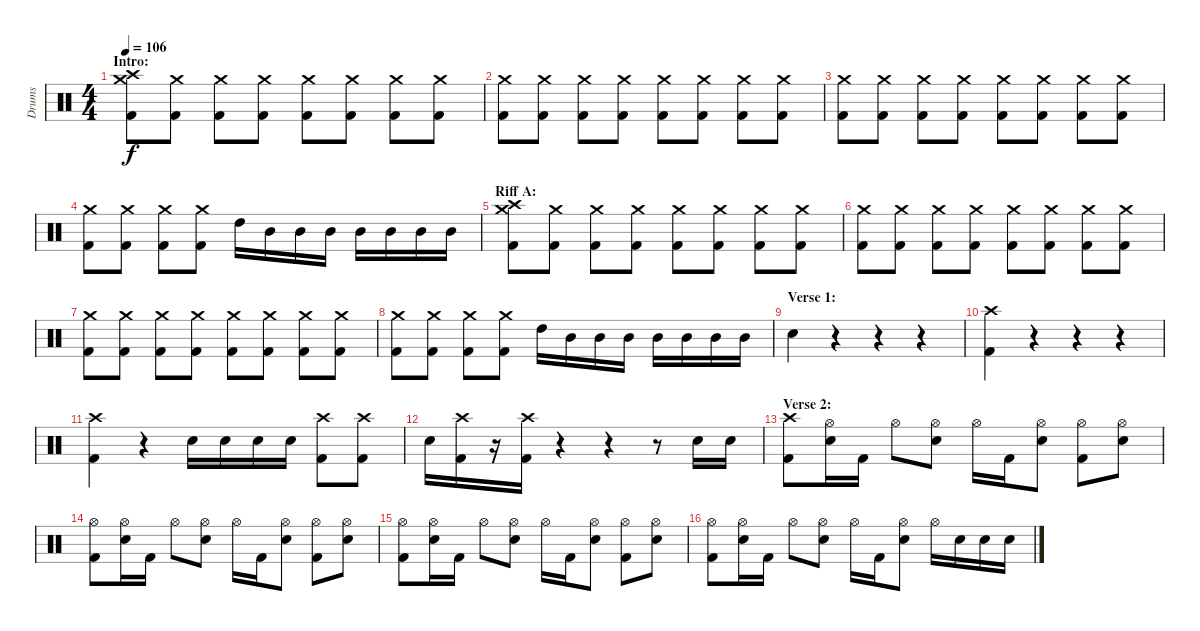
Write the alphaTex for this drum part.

\track ("Drums" "Drums") {instrument percussion}
\staff {score}
\articulation defaults
\ts (4 4)
\section ("" "Intro:")
\tempo 106
\clef neutral
\ks c
("Crash medium (hit)" "Crash high (hit)" "Kick (hit) 2").8{dy f} ("Crash medium (hit)" "Kick (hit) 2").8 ("Crash medium (hit)" "Kick (hit) 2").8 ("Crash medium (hit)" "Kick (hit) 2").8 ("Crash medium (hit)" "Kick (hit) 2").8 ("Crash medium (hit)" "Kick (hit) 2").8 ("Crash medium (hit)" "Kick (hit) 2").8 ("Crash medium (hit)" "Kick (hit) 2").8 |
("Crash medium (hit)" "Kick (hit) 2").8 ("Crash medium (hit)" "Kick (hit) 2").8 ("Crash medium (hit)" "Kick (hit) 2").8 ("Crash medium (hit)" "Kick (hit) 2").8 ("Crash medium (hit)" "Kick (hit) 2").8 ("Crash medium (hit)" "Kick (hit) 2").8 ("Crash medium (hit)" "Kick (hit) 2").8 ("Crash medium (hit)" "Kick (hit) 2").8 |
("Crash medium (hit)" "Kick (hit) 2").8 ("Crash medium (hit)" "Kick (hit) 2").8 ("Crash medium (hit)" "Kick (hit) 2").8 ("Crash medium (hit)" "Kick (hit) 2").8 ("Crash medium (hit)" "Kick (hit) 2").8 ("Crash medium (hit)" "Kick (hit) 2").8 ("Crash medium (hit)" "Kick (hit) 2").8 ("Crash medium (hit)" "Kick (hit) 2").8 |
("Crash medium (hit)" "Kick (hit) 2").8 ("Crash medium (hit)" "Kick (hit) 2").8 ("Crash medium (hit)" "Kick (hit) 2").8 ("Crash medium (hit)" "Kick (hit) 2").8 "High Tom (hit)".16 "Mid Tom (hit)".16 "Mid Tom (hit)".16 "Mid Tom (hit)".16 "Mid Tom (hit)".16 "Mid Tom (hit)".16 "Mid Tom (hit)".16 "Mid Tom (hit)".16 |
\section ("" "Riff A:")
("Crash medium (hit)" "Crash high (hit)" "Kick (hit) 2").8 ("Crash medium (hit)" "Kick (hit) 2").8 ("Crash medium (hit)" "Kick (hit) 2").8 ("Crash medium (hit)" "Kick (hit) 2").8 ("Crash medium (hit)" "Kick (hit) 2").8 ("Crash medium (hit)" "Kick (hit) 2").8 ("Crash medium (hit)" "Kick (hit) 2").8 ("Crash medium (hit)" "Kick (hit) 2").8 |
("Crash medium (hit)" "Kick (hit) 2").8 ("Crash medium (hit)" "Kick (hit) 2").8 ("Crash medium (hit)" "Kick (hit) 2").8 ("Crash medium (hit)" "Kick (hit) 2").8 ("Crash medium (hit)" "Kick (hit) 2").8 ("Crash medium (hit)" "Kick (hit) 2").8 ("Crash medium (hit)" "Kick (hit) 2").8 ("Crash medium (hit)" "Kick (hit) 2").8 |
("Crash medium (hit)" "Kick (hit) 2").8 ("Crash medium (hit)" "Kick (hit) 2").8 ("Crash medium (hit)" "Kick (hit) 2").8 ("Crash medium (hit)" "Kick (hit) 2").8 ("Crash medium (hit)" "Kick (hit) 2").8 ("Crash medium (hit)" "Kick (hit) 2").8 ("Crash medium (hit)" "Kick (hit) 2").8 ("Crash medium (hit)" "Kick (hit) 2").8 |
("Crash medium (hit)" "Kick (hit) 2").8 ("Crash medium (hit)" "Kick (hit) 2").8 ("Crash medium (hit)" "Kick (hit) 2").8 ("Crash medium (hit)" "Kick (hit) 2").8 "High Tom (hit)".16 "Mid Tom (hit)".16 "Mid Tom (hit)".16 "Mid Tom (hit)".16 "Mid Tom (hit)".16 "Mid Tom (hit)".16 "Mid Tom (hit)".16 "Mid Tom (hit)".16 |
\section ("" "Verse 1:")
"Electric Snare (hit)".4 r.4 r.4 r.4 |
("Crash high (hit)" "Kick (hit) 2").4 r.4 r.4 r.4 |
("Crash high (hit)" "Kick (hit) 2").4 r.4 "Electric Snare (hit)".16 "Electric Snare (hit)".16 "Electric Snare (hit)".16 "Electric Snare (hit)".16 ("Crash high (hit)" "Kick (hit) 2").8 ("Crash high (hit)" "Kick (hit) 2").8 |
"Electric Snare (hit)".16 ("Crash high (hit)" "Kick (hit) 2").16 r.16 ("Crash high (hit)" "Kick (hit) 2").16 r.4 r.4 r.8 "Electric Snare (hit)".16 "Electric Snare (hit)".16 |
\section ("" "Verse 2:")
("Crash high (hit)" "Kick (hit) 2").8 ("Hi-Hat (open)" "Electric Snare (hit)").16 "Kick (hit) 2".16 "Hi-Hat (open)".8 ("Hi-Hat (open)" "Electric Snare (hit)").8 "Hi-Hat (open)".16 "Kick (hit) 2".16 ("Hi-Hat (open)" "Electric Snare (hit)").8 ("Hi-Hat (open)" "Kick (hit) 2").8 ("Hi-Hat (open)" "Electric Snare (hit)").8 |
("Hi-Hat (open)" "Kick (hit) 2").8 ("Hi-Hat (open)" "Electric Snare (hit)").16 "Kick (hit) 2".16 "Hi-Hat (open)".8 ("Hi-Hat (open)" "Electric Snare (hit)").8 "Hi-Hat (open)".16 "Kick (hit) 2".16 ("Hi-Hat (open)" "Electric Snare (hit)").8 ("Hi-Hat (open)" "Kick (hit) 2").8 ("Hi-Hat (open)" "Electric Snare (hit)").8 |
("Hi-Hat (open)" "Kick (hit) 2").8 ("Hi-Hat (open)" "Electric Snare (hit)").16 "Kick (hit) 2".16 "Hi-Hat (open)".8 ("Hi-Hat (open)" "Electric Snare (hit)").8 "Hi-Hat (open)".16 "Kick (hit) 2".16 ("Hi-Hat (open)" "Electric Snare (hit)").8 ("Hi-Hat (open)" "Kick (hit) 2").8 ("Hi-Hat (open)" "Electric Snare (hit)").8 |
("Hi-Hat (open)" "Kick (hit) 2").8 ("Hi-Hat (open)" "Electric Snare (hit)").16 "Kick (hit) 2".16 "Hi-Hat (open)".8 ("Hi-Hat (open)" "Electric Snare (hit)").8 "Hi-Hat (open)".16 "Kick (hit) 2".16 ("Hi-Hat (open)" "Electric Snare (hit)").8 "Hi-Hat (open)".16 "Electric Snare (hit)".16 "Electric Snare (hit)".16 "Electric Snare (hit)".16
